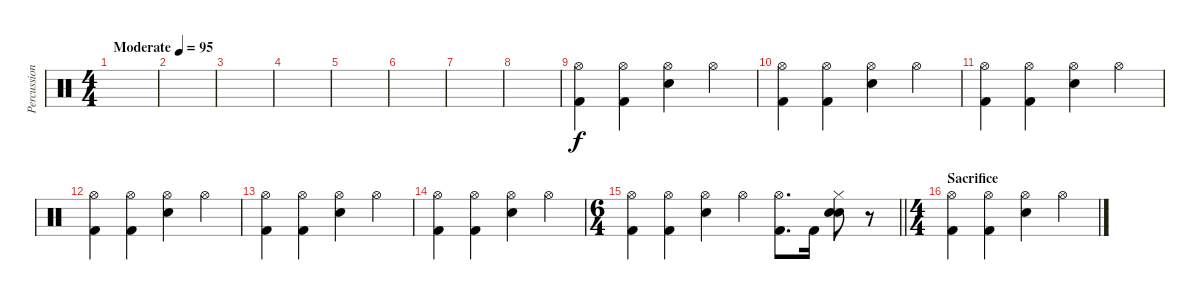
\track ("Percussion" "Percussion") {instrument percussion}
\staff {score}
\articulation defaults
\ts (4 4)
\tempo (95 "Moderate")
\clef neutral
\ks c
|
|
|
|
|
|
|
|
("Hi-Hat (open)" "Kick (hit) 2").4 ("Hi-Hat (open)" "Kick (hit) 2").4 ("Hi-Hat (open)" "Snare (hit) 2").4 "Hi-Hat (open)".4 |
("Hi-Hat (open)" "Kick (hit) 2").4 ("Hi-Hat (open)" "Kick (hit) 2").4 ("Hi-Hat (open)" "Snare (hit) 2").4 "Hi-Hat (open)".4 |
("Hi-Hat (open)" "Kick (hit) 2").4 ("Hi-Hat (open)" "Kick (hit) 2").4 ("Hi-Hat (open)" "Snare (hit) 2").4 "Hi-Hat (open)".4 |
("Hi-Hat (open)" "Kick (hit) 2").4 ("Hi-Hat (open)" "Kick (hit) 2").4 ("Hi-Hat (open)" "Snare (hit) 2").4 "Hi-Hat (open)".4 |
("Hi-Hat (open)" "Kick (hit) 2").4 ("Hi-Hat (open)" "Kick (hit) 2").4 ("Hi-Hat (open)" "Snare (hit) 2").4 "Hi-Hat (open)".4 |
("Hi-Hat (open)" "Kick (hit) 2").4 ("Hi-Hat (open)" "Kick (hit) 2").4 ("Hi-Hat (open)" "Snare (hit) 2").4 "Hi-Hat (open)".4 |
\ts (6 4)
\barLineRight lightlight
("Hi-Hat (open)" "Kick (hit) 2").4 ("Hi-Hat (open)" "Kick (hit) 2").4 ("Hi-Hat (open)" "Snare (hit) 2").4 "Hi-Hat (open)".4 ("Hi-Hat (open)" "Kick (hit) 2").8{d} "Kick (hit) 2".16 ("Hi-Hat (closed)" "Snare (hit) 2" "Snare (hit) 2").8 r.8 |
\ts (4 4)
\section ("" "Sacrifice")
("Hi-Hat (open)" "Kick (hit) 2").4 ("Hi-Hat (open)" "Kick (hit) 2").4 ("Hi-Hat (open)" "Snare (hit) 2").4 "Hi-Hat (open)".4
